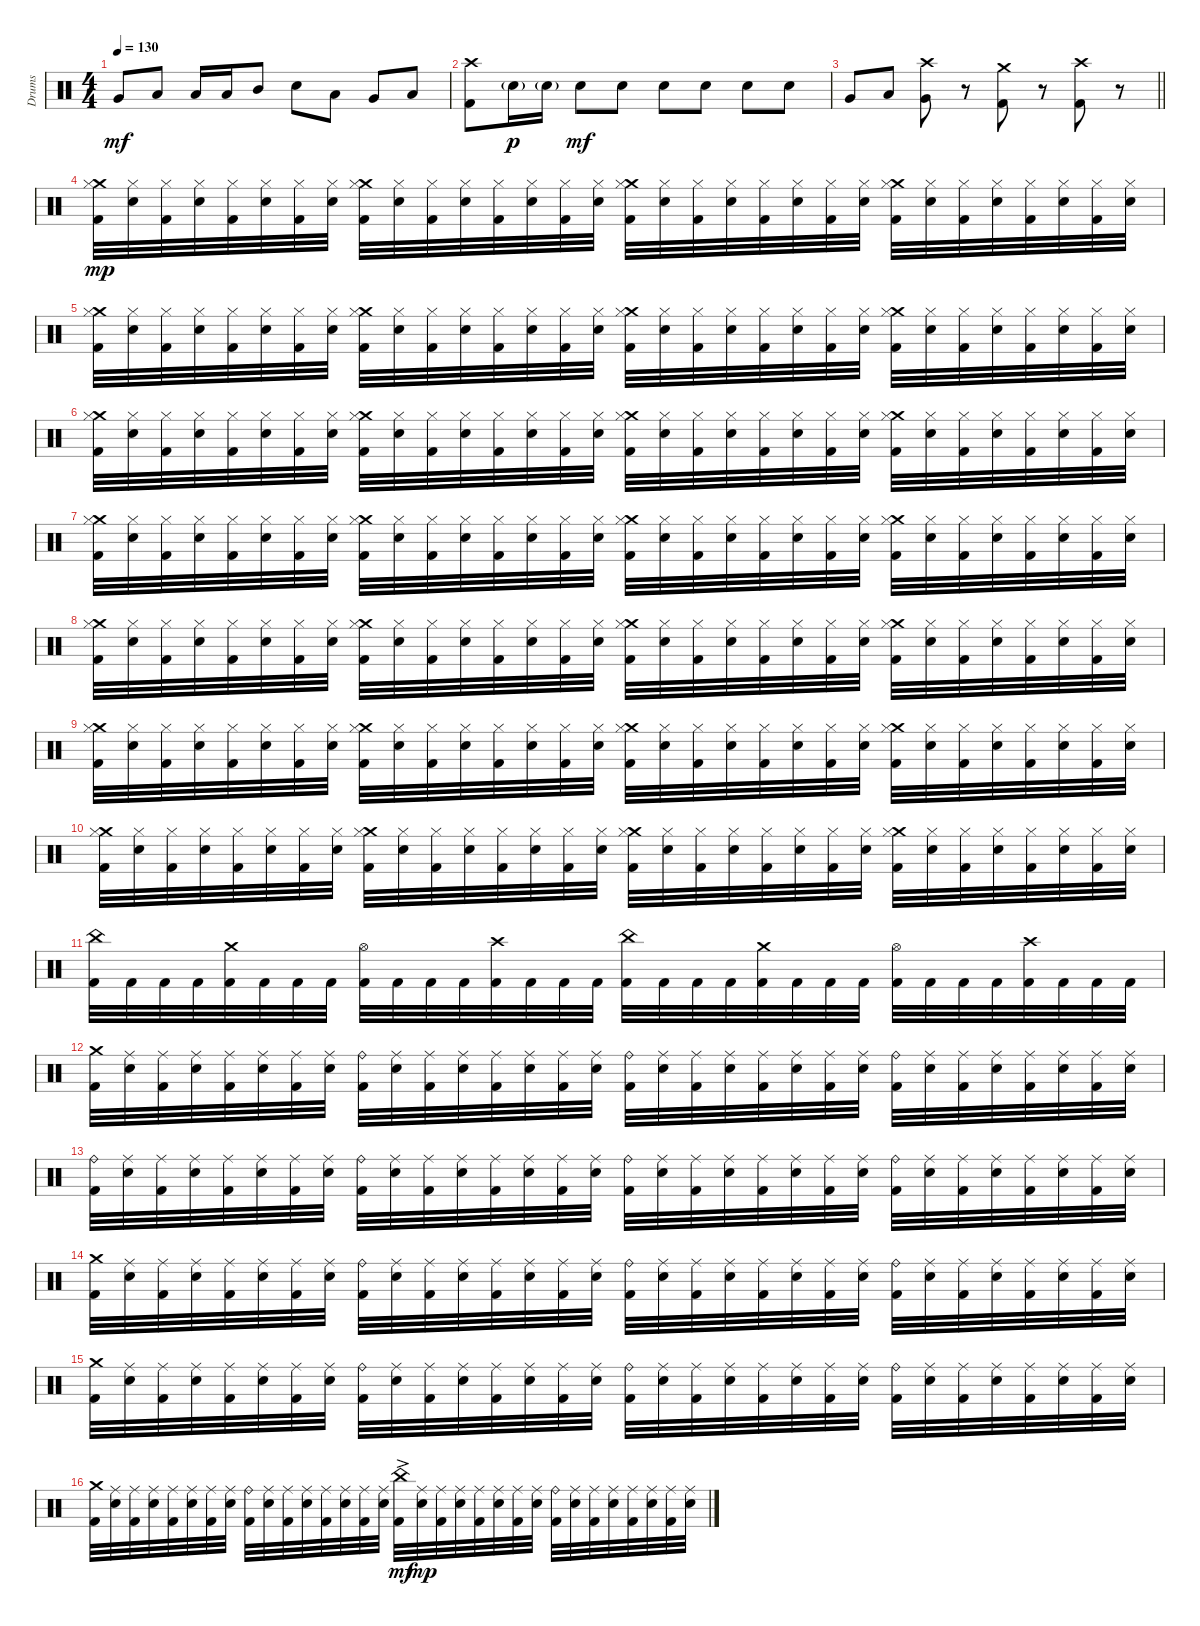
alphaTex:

\track ("Drums" "Drums") {instrument percussion}
\staff {score}
\articulation defaults
\ts (4 4)
\tempo 130
\clef neutral
\ks c "Very Low Tom (hit)".8{dy mf} "Low Floor Tom (hit)".8 "Low Tom (hit)".16 "Low Tom (hit)".16 "Mid Tom (hit)".8 "Electric Snare (hit)".8 "Low Tom (hit)".8 "Very Low Tom (hit)".8 "Low Floor Tom (hit)".8
|
("Kick (hit) 2" "Crash high (hit)").8 "Electric Snare (hit)"{g}.16{dy p} "Electric Snare (hit)"{g}.16 "Electric Snare (hit)".8{dy mf} "Electric Snare (hit)".8 "Electric Snare (hit)".8 "Electric Snare (hit)".8 "Electric Snare (hit)".8 "Electric Snare (hit)".8 |
\barLineRight lightlight "Very Low Tom (hit)".8 "Low Tom (hit)".8
("Very Low Tom (hit)" "Crash high (hit)").8 r.8 ("Kick (hit) 2" "Crash medium (hit)").8 r.8 ("Kick (hit) 2" "Crash high (hit)").8 r.8 |
("Kick (hit) 2" "Crash medium (hit)" "Hi-Hat (closed)").32{dy mp} ("Electric Snare (hit)" "Hi-Hat (closed)").32 ("Kick (hit) 2" "Hi-Hat (closed)").32 ("Electric Snare (hit)" "Hi-Hat (closed)").32 ("Kick (hit) 2" "Hi-Hat (closed)").32 ("Electric Snare (hit)" "Hi-Hat (closed)").32 ("Kick (hit) 2" "Hi-Hat (closed)").32 ("Electric Snare (hit)" "Hi-Hat (closed)").32 ("Kick (hit) 2" "Crash medium (hit)" "Hi-Hat (closed)").32 ("Electric Snare (hit)" "Hi-Hat (closed)").32 ("Kick (hit) 2" "Hi-Hat (closed)").32 ("Electric Snare (hit)" "Hi-Hat (closed)").32 ("Kick (hit) 2" "Hi-Hat (closed)").32 ("Electric Snare (hit)" "Hi-Hat (closed)").32 ("Kick (hit) 2" "Hi-Hat (closed)").32 ("Electric Snare (hit)" "Hi-Hat (closed)").32 ("Kick (hit) 2" "Crash medium (hit)" "Hi-Hat (closed)").32 ("Electric Snare (hit)" "Hi-Hat (closed)").32 ("Kick (hit) 2" "Hi-Hat (closed)").32 ("Electric Snare (hit)" "Hi-Hat (closed)").32 ("Kick (hit) 2" "Hi-Hat (closed)").32 ("Electric Snare (hit)" "Hi-Hat (closed)").32 ("Kick (hit) 2" "Hi-Hat (closed)").32 ("Electric Snare (hit)" "Hi-Hat (closed)").32 ("Kick (hit) 2" "Crash medium (hit)" "Hi-Hat (closed)").32 ("Electric Snare (hit)" "Hi-Hat (closed)").32 ("Kick (hit) 2" "Hi-Hat (closed)").32 ("Electric Snare (hit)" "Hi-Hat (closed)").32 ("Kick (hit) 2" "Hi-Hat (closed)").32 ("Electric Snare (hit)" "Hi-Hat (closed)").32 ("Kick (hit) 2" "Hi-Hat (closed)").32 ("Electric Snare (hit)" "Hi-Hat (closed)").32 |
("Kick (hit) 2" "Crash medium (hit)" "Hi-Hat (closed)").32 ("Electric Snare (hit)" "Hi-Hat (closed)").32 ("Kick (hit) 2" "Hi-Hat (closed)").32 ("Electric Snare (hit)" "Hi-Hat (closed)").32 ("Kick (hit) 2" "Hi-Hat (closed)").32 ("Electric Snare (hit)" "Hi-Hat (closed)").32 ("Kick (hit) 2" "Hi-Hat (closed)").32 ("Electric Snare (hit)" "Hi-Hat (closed)").32 ("Kick (hit) 2" "Crash medium (hit)" "Hi-Hat (closed)").32 ("Electric Snare (hit)" "Hi-Hat (closed)").32 ("Kick (hit) 2" "Hi-Hat (closed)").32 ("Electric Snare (hit)" "Hi-Hat (closed)").32 ("Kick (hit) 2" "Hi-Hat (closed)").32 ("Electric Snare (hit)" "Hi-Hat (closed)").32 ("Kick (hit) 2" "Hi-Hat (closed)").32 ("Electric Snare (hit)" "Hi-Hat (closed)").32 ("Kick (hit) 2" "Crash medium (hit)" "Hi-Hat (closed)").32 ("Electric Snare (hit)" "Hi-Hat (closed)").32 ("Kick (hit) 2" "Hi-Hat (closed)").32 ("Electric Snare (hit)" "Hi-Hat (closed)").32 ("Kick (hit) 2" "Hi-Hat (closed)").32 ("Electric Snare (hit)" "Hi-Hat (closed)").32 ("Kick (hit) 2" "Hi-Hat (closed)").32 ("Electric Snare (hit)" "Hi-Hat (closed)").32 ("Kick (hit) 2" "Crash medium (hit)" "Hi-Hat (closed)").32 ("Electric Snare (hit)" "Hi-Hat (closed)").32 ("Kick (hit) 2" "Hi-Hat (closed)").32 ("Electric Snare (hit)" "Hi-Hat (closed)").32 ("Kick (hit) 2" "Hi-Hat (closed)").32 ("Electric Snare (hit)" "Hi-Hat (closed)").32 ("Kick (hit) 2" "Hi-Hat (closed)").32 ("Electric Snare (hit)" "Hi-Hat (closed)").32 |
("Kick (hit) 2" "Crash medium (hit)" "Hi-Hat (closed)").32 ("Electric Snare (hit)" "Hi-Hat (closed)").32 ("Kick (hit) 2" "Hi-Hat (closed)").32 ("Electric Snare (hit)" "Hi-Hat (closed)").32 ("Kick (hit) 2" "Hi-Hat (closed)").32 ("Electric Snare (hit)" "Hi-Hat (closed)").32 ("Kick (hit) 2" "Hi-Hat (closed)").32 ("Electric Snare (hit)" "Hi-Hat (closed)").32 ("Kick (hit) 2" "Crash medium (hit)" "Hi-Hat (closed)").32 ("Electric Snare (hit)" "Hi-Hat (closed)").32 ("Kick (hit) 2" "Hi-Hat (closed)").32 ("Electric Snare (hit)" "Hi-Hat (closed)").32 ("Kick (hit) 2" "Hi-Hat (closed)").32 ("Electric Snare (hit)" "Hi-Hat (closed)").32 ("Kick (hit) 2" "Hi-Hat (closed)").32 ("Electric Snare (hit)" "Hi-Hat (closed)").32 ("Kick (hit) 2" "Crash medium (hit)" "Hi-Hat (closed)").32 ("Electric Snare (hit)" "Hi-Hat (closed)").32 ("Kick (hit) 2" "Hi-Hat (closed)").32 ("Electric Snare (hit)" "Hi-Hat (closed)").32 ("Kick (hit) 2" "Hi-Hat (closed)").32 ("Electric Snare (hit)" "Hi-Hat (closed)").32 ("Kick (hit) 2" "Hi-Hat (closed)").32 ("Electric Snare (hit)" "Hi-Hat (closed)").32 ("Kick (hit) 2" "Crash medium (hit)" "Hi-Hat (closed)").32 ("Electric Snare (hit)" "Hi-Hat (closed)").32 ("Kick (hit) 2" "Hi-Hat (closed)").32 ("Electric Snare (hit)" "Hi-Hat (closed)").32 ("Kick (hit) 2" "Hi-Hat (closed)").32 ("Electric Snare (hit)" "Hi-Hat (closed)").32 ("Kick (hit) 2" "Hi-Hat (closed)").32 ("Electric Snare (hit)" "Hi-Hat (closed)").32 |
("Kick (hit) 2" "Crash medium (hit)" "Hi-Hat (closed)").32 ("Electric Snare (hit)" "Hi-Hat (closed)").32 ("Kick (hit) 2" "Hi-Hat (closed)").32 ("Electric Snare (hit)" "Hi-Hat (closed)").32 ("Kick (hit) 2" "Hi-Hat (closed)").32 ("Electric Snare (hit)" "Hi-Hat (closed)").32 ("Kick (hit) 2" "Hi-Hat (closed)").32 ("Electric Snare (hit)" "Hi-Hat (closed)").32 ("Kick (hit) 2" "Crash medium (hit)" "Hi-Hat (closed)").32 ("Electric Snare (hit)" "Hi-Hat (closed)").32 ("Kick (hit) 2" "Hi-Hat (closed)").32 ("Electric Snare (hit)" "Hi-Hat (closed)").32 ("Kick (hit) 2" "Hi-Hat (closed)").32 ("Electric Snare (hit)" "Hi-Hat (closed)").32 ("Kick (hit) 2" "Hi-Hat (closed)").32 ("Electric Snare (hit)" "Hi-Hat (closed)").32 ("Kick (hit) 2" "Crash medium (hit)" "Hi-Hat (closed)").32 ("Electric Snare (hit)" "Hi-Hat (closed)").32 ("Kick (hit) 2" "Hi-Hat (closed)").32 ("Electric Snare (hit)" "Hi-Hat (closed)").32 ("Kick (hit) 2" "Hi-Hat (closed)").32 ("Electric Snare (hit)" "Hi-Hat (closed)").32 ("Kick (hit) 2" "Hi-Hat (closed)").32 ("Electric Snare (hit)" "Hi-Hat (closed)").32 ("Kick (hit) 2" "Crash medium (hit)" "Hi-Hat (closed)").32 ("Electric Snare (hit)" "Hi-Hat (closed)").32 ("Kick (hit) 2" "Hi-Hat (closed)").32 ("Electric Snare (hit)" "Hi-Hat (closed)").32 ("Kick (hit) 2" "Hi-Hat (closed)").32 ("Electric Snare (hit)" "Hi-Hat (closed)").32 ("Kick (hit) 2" "Hi-Hat (closed)").32 ("Electric Snare (hit)" "Hi-Hat (closed)").32 |
("Kick (hit) 2" "Crash medium (hit)" "Hi-Hat (closed)").32 ("Electric Snare (hit)" "Hi-Hat (closed)").32 ("Kick (hit) 2" "Hi-Hat (closed)").32 ("Electric Snare (hit)" "Hi-Hat (closed)").32 ("Kick (hit) 2" "Hi-Hat (closed)").32 ("Electric Snare (hit)" "Hi-Hat (closed)").32 ("Kick (hit) 2" "Hi-Hat (closed)").32 ("Electric Snare (hit)" "Hi-Hat (closed)").32 ("Kick (hit) 2" "Crash medium (hit)" "Hi-Hat (closed)").32 ("Electric Snare (hit)" "Hi-Hat (closed)").32 ("Kick (hit) 2" "Hi-Hat (closed)").32 ("Electric Snare (hit)" "Hi-Hat (closed)").32 ("Kick (hit) 2" "Hi-Hat (closed)").32 ("Electric Snare (hit)" "Hi-Hat (closed)").32 ("Kick (hit) 2" "Hi-Hat (closed)").32 ("Electric Snare (hit)" "Hi-Hat (closed)").32 ("Kick (hit) 2" "Crash medium (hit)" "Hi-Hat (closed)").32 ("Electric Snare (hit)" "Hi-Hat (closed)").32 ("Kick (hit) 2" "Hi-Hat (closed)").32 ("Electric Snare (hit)" "Hi-Hat (closed)").32 ("Kick (hit) 2" "Hi-Hat (closed)").32 ("Electric Snare (hit)" "Hi-Hat (closed)").32 ("Kick (hit) 2" "Hi-Hat (closed)").32 ("Electric Snare (hit)" "Hi-Hat (closed)").32 ("Kick (hit) 2" "Crash medium (hit)" "Hi-Hat (closed)").32 ("Electric Snare (hit)" "Hi-Hat (closed)").32 ("Kick (hit) 2" "Hi-Hat (closed)").32 ("Electric Snare (hit)" "Hi-Hat (closed)").32 ("Kick (hit) 2" "Hi-Hat (closed)").32 ("Electric Snare (hit)" "Hi-Hat (closed)").32 ("Kick (hit) 2" "Hi-Hat (closed)").32 ("Electric Snare (hit)" "Hi-Hat (closed)").32 |
("Kick (hit) 2" "Crash medium (hit)" "Hi-Hat (closed)").32 ("Electric Snare (hit)" "Hi-Hat (closed)").32 ("Kick (hit) 2" "Hi-Hat (closed)").32 ("Electric Snare (hit)" "Hi-Hat (closed)").32 ("Kick (hit) 2" "Hi-Hat (closed)").32 ("Electric Snare (hit)" "Hi-Hat (closed)").32 ("Kick (hit) 2" "Hi-Hat (closed)").32 ("Electric Snare (hit)" "Hi-Hat (closed)").32 ("Kick (hit) 2" "Crash medium (hit)" "Hi-Hat (closed)").32 ("Electric Snare (hit)" "Hi-Hat (closed)").32 ("Kick (hit) 2" "Hi-Hat (closed)").32 ("Electric Snare (hit)" "Hi-Hat (closed)").32 ("Kick (hit) 2" "Hi-Hat (closed)").32 ("Electric Snare (hit)" "Hi-Hat (closed)").32 ("Kick (hit) 2" "Hi-Hat (closed)").32 ("Electric Snare (hit)" "Hi-Hat (closed)").32 ("Kick (hit) 2" "Crash medium (hit)" "Hi-Hat (closed)").32 ("Electric Snare (hit)" "Hi-Hat (closed)").32 ("Kick (hit) 2" "Hi-Hat (closed)").32 ("Electric Snare (hit)" "Hi-Hat (closed)").32 ("Kick (hit) 2" "Hi-Hat (closed)").32 ("Electric Snare (hit)" "Hi-Hat (closed)").32 ("Kick (hit) 2" "Hi-Hat (closed)").32 ("Electric Snare (hit)" "Hi-Hat (closed)").32 ("Kick (hit) 2" "Crash medium (hit)" "Hi-Hat (closed)").32 ("Electric Snare (hit)" "Hi-Hat (closed)").32 ("Kick (hit) 2" "Hi-Hat (closed)").32 ("Electric Snare (hit)" "Hi-Hat (closed)").32 ("Kick (hit) 2" "Hi-Hat (closed)").32 ("Electric Snare (hit)" "Hi-Hat (closed)").32 ("Kick (hit) 2" "Hi-Hat (closed)").32 ("Electric Snare (hit)" "Hi-Hat (closed)").32 |
("Kick (hit) 2" "Crash medium (hit)" "Hi-Hat (closed)").32 ("Electric Snare (hit)" "Hi-Hat (closed)").32 ("Kick (hit) 2" "Hi-Hat (closed)").32 ("Electric Snare (hit)" "Hi-Hat (closed)").32 ("Kick (hit) 2" "Hi-Hat (closed)").32 ("Electric Snare (hit)" "Hi-Hat (closed)").32 ("Kick (hit) 2" "Hi-Hat (closed)").32 ("Electric Snare (hit)" "Hi-Hat (closed)").32 ("Kick (hit) 2" "Crash medium (hit)" "Hi-Hat (closed)").32 ("Electric Snare (hit)" "Hi-Hat (closed)").32 ("Kick (hit) 2" "Hi-Hat (closed)").32 ("Electric Snare (hit)" "Hi-Hat (closed)").32 ("Kick (hit) 2" "Hi-Hat (closed)").32 ("Electric Snare (hit)" "Hi-Hat (closed)").32 ("Kick (hit) 2" "Hi-Hat (closed)").32 ("Electric Snare (hit)" "Hi-Hat (closed)").32 ("Kick (hit) 2" "Crash medium (hit)" "Hi-Hat (closed)").32 ("Electric Snare (hit)" "Hi-Hat (closed)").32 ("Kick (hit) 2" "Hi-Hat (closed)").32 ("Electric Snare (hit)" "Hi-Hat (closed)").32 ("Kick (hit) 2" "Hi-Hat (closed)").32 ("Electric Snare (hit)" "Hi-Hat (closed)").32 ("Kick (hit) 2" "Hi-Hat (closed)").32 ("Electric Snare (hit)" "Hi-Hat (closed)").32 ("Kick (hit) 2" "Crash medium (hit)" "Hi-Hat (closed)").32 ("Electric Snare (hit)" "Hi-Hat (closed)").32 ("Kick (hit) 2" "Hi-Hat (closed)").32 ("Electric Snare (hit)" "Hi-Hat (closed)").32 ("Kick (hit) 2" "Hi-Hat (closed)").32 ("Electric Snare (hit)" "Hi-Hat (closed)").32 ("Kick (hit) 2" "Hi-Hat (closed)").32 ("Electric Snare (hit)" "Hi-Hat (closed)").32 |
("Kick (hit) 2" "China (hit)").32 "Kick (hit) 2".32 "Kick (hit) 2".32 "Kick (hit) 2".32 ("Kick (hit) 2" "Crash medium (hit)").32 "Kick (hit) 2".32 "Kick (hit) 2".32 "Kick (hit) 2".32 ("Kick (hit) 2" "Hi-Hat (open)").32 "Kick (hit) 2".32 "Kick (hit) 2".32 "Kick (hit) 2".32 ("Kick (hit) 2" "Crash high (hit)").32 "Kick (hit) 2".32 "Kick (hit) 2".32 "Kick (hit) 2".32 ("Kick (hit) 2" "China (hit)").32 "Kick (hit) 2".32 "Kick (hit) 2".32 "Kick (hit) 2".32 ("Kick (hit) 2" "Crash medium (hit)").32 "Kick (hit) 2".32 "Kick (hit) 2".32 "Kick (hit) 2".32 ("Kick (hit) 2" "Hi-Hat (open)").32 "Kick (hit) 2".32 "Kick (hit) 2".32 "Kick (hit) 2".32 ("Kick (hit) 2" "Crash high (hit)").32 "Kick (hit) 2".32 "Kick (hit) 2".32 "Kick (hit) 2".32 |
("Kick (hit) 2" "Crash medium (hit)").32 ("Electric Snare (hit)" "Ride (middle)").32 ("Kick (hit) 2" "Ride (middle)").32 ("Electric Snare (hit)" "Ride (middle)").32 ("Kick (hit) 2" "Ride (middle)").32 ("Electric Snare (hit)" "Ride (middle)").32 ("Kick (hit) 2" "Ride (middle)").32 ("Electric Snare (hit)" "Ride (middle)").32 ("Kick (hit) 2" "Ride (bell)").32 ("Electric Snare (hit)" "Ride (middle)").32 ("Kick (hit) 2" "Ride (middle)").32 ("Electric Snare (hit)" "Ride (middle)").32 ("Kick (hit) 2" "Ride (middle)").32 ("Electric Snare (hit)" "Ride (middle)").32 ("Kick (hit) 2" "Ride (middle)").32 ("Electric Snare (hit)" "Ride (middle)").32 ("Kick (hit) 2" "Ride (bell)").32 ("Electric Snare (hit)" "Ride (middle)").32 ("Kick (hit) 2" "Ride (middle)").32 ("Electric Snare (hit)" "Ride (middle)").32 ("Kick (hit) 2" "Ride (middle)").32 ("Electric Snare (hit)" "Ride (middle)").32 ("Kick (hit) 2" "Ride (middle)").32 ("Electric Snare (hit)" "Ride (middle)").32 ("Kick (hit) 2" "Ride (bell)").32 ("Electric Snare (hit)" "Ride (middle)").32 ("Kick (hit) 2" "Ride (middle)").32 ("Electric Snare (hit)" "Ride (middle)").32 ("Kick (hit) 2" "Ride (middle)").32 ("Electric Snare (hit)" "Ride (middle)").32 ("Kick (hit) 2" "Ride (middle)").32 ("Electric Snare (hit)" "Ride (middle)").32 |
("Kick (hit) 2" "Ride (bell)").32 ("Electric Snare (hit)" "Ride (middle)").32 ("Kick (hit) 2" "Ride (middle)").32 ("Electric Snare (hit)" "Ride (middle)").32 ("Kick (hit) 2" "Ride (middle)").32 ("Electric Snare (hit)" "Ride (middle)").32 ("Kick (hit) 2" "Ride (middle)").32 ("Electric Snare (hit)" "Ride (middle)").32 ("Kick (hit) 2" "Ride (bell)").32 ("Electric Snare (hit)" "Ride (middle)").32 ("Kick (hit) 2" "Ride (middle)").32 ("Electric Snare (hit)" "Ride (middle)").32 ("Kick (hit) 2" "Ride (middle)").32 ("Electric Snare (hit)" "Ride (middle)").32 ("Kick (hit) 2" "Ride (middle)").32 ("Electric Snare (hit)" "Ride (middle)").32 ("Kick (hit) 2" "Ride (bell)").32 ("Electric Snare (hit)" "Ride (middle)").32 ("Kick (hit) 2" "Ride (middle)").32 ("Electric Snare (hit)" "Ride (middle)").32 ("Kick (hit) 2" "Ride (middle)").32 ("Electric Snare (hit)" "Ride (middle)").32 ("Kick (hit) 2" "Ride (middle)").32 ("Electric Snare (hit)" "Ride (middle)").32 ("Kick (hit) 2" "Ride (bell)").32 ("Electric Snare (hit)" "Ride (middle)").32 ("Kick (hit) 2" "Ride (middle)").32 ("Electric Snare (hit)" "Ride (middle)").32 ("Kick (hit) 2" "Ride (middle)").32 ("Electric Snare (hit)" "Ride (middle)").32 ("Kick (hit) 2" "Ride (middle)").32 ("Electric Snare (hit)" "Ride (middle)").32 |
("Kick (hit) 2" "Crash medium (hit)").32 ("Electric Snare (hit)" "Ride (middle)").32 ("Kick (hit) 2" "Ride (middle)").32 ("Electric Snare (hit)" "Ride (middle)").32 ("Kick (hit) 2" "Ride (middle)").32 ("Electric Snare (hit)" "Ride (middle)").32 ("Kick (hit) 2" "Ride (middle)").32 ("Electric Snare (hit)" "Ride (middle)").32 ("Kick (hit) 2" "Ride (bell)").32 ("Electric Snare (hit)" "Ride (middle)").32 ("Kick (hit) 2" "Ride (middle)").32 ("Electric Snare (hit)" "Ride (middle)").32 ("Kick (hit) 2" "Ride (middle)").32 ("Electric Snare (hit)" "Ride (middle)").32 ("Kick (hit) 2" "Ride (middle)").32 ("Electric Snare (hit)" "Ride (middle)").32 ("Kick (hit) 2" "Ride (bell)").32 ("Electric Snare (hit)" "Ride (middle)").32 ("Kick (hit) 2" "Ride (middle)").32 ("Electric Snare (hit)" "Ride (middle)").32 ("Kick (hit) 2" "Ride (middle)").32 ("Electric Snare (hit)" "Ride (middle)").32 ("Kick (hit) 2" "Ride (middle)").32 ("Electric Snare (hit)" "Ride (middle)").32 ("Kick (hit) 2" "Ride (bell)").32 ("Electric Snare (hit)" "Ride (middle)").32 ("Kick (hit) 2" "Ride (middle)").32 ("Electric Snare (hit)" "Ride (middle)").32 ("Kick (hit) 2" "Ride (middle)").32 ("Electric Snare (hit)" "Ride (middle)").32 ("Kick (hit) 2" "Ride (middle)").32 ("Electric Snare (hit)" "Ride (middle)").32 |
("Kick (hit) 2" "Crash medium (hit)").32 ("Electric Snare (hit)" "Ride (middle)").32 ("Kick (hit) 2" "Ride (middle)").32 ("Electric Snare (hit)" "Ride (middle)").32 ("Kick (hit) 2" "Ride (middle)").32 ("Electric Snare (hit)" "Ride (middle)").32 ("Kick (hit) 2" "Ride (middle)").32 ("Electric Snare (hit)" "Ride (middle)").32 ("Kick (hit) 2" "Ride (bell)").32 ("Electric Snare (hit)" "Ride (middle)").32 ("Kick (hit) 2" "Ride (middle)").32 ("Electric Snare (hit)" "Ride (middle)").32 ("Kick (hit) 2" "Ride (middle)").32 ("Electric Snare (hit)" "Ride (middle)").32 ("Kick (hit) 2" "Ride (middle)").32 ("Electric Snare (hit)" "Ride (middle)").32 ("Kick (hit) 2" "Ride (bell)").32 ("Electric Snare (hit)" "Ride (middle)").32 ("Kick (hit) 2" "Ride (middle)").32 ("Electric Snare (hit)" "Ride (middle)").32 ("Kick (hit) 2" "Ride (middle)").32 ("Electric Snare (hit)" "Ride (middle)").32 ("Kick (hit) 2" "Ride (middle)").32 ("Electric Snare (hit)" "Ride (middle)").32 ("Kick (hit) 2" "Ride (bell)").32 ("Electric Snare (hit)" "Ride (middle)").32 ("Kick (hit) 2" "Ride (middle)").32 ("Electric Snare (hit)" "Ride (middle)").32 ("Kick (hit) 2" "Ride (middle)").32 ("Electric Snare (hit)" "Ride (middle)").32 ("Kick (hit) 2" "Ride (middle)").32 ("Electric Snare (hit)" "Ride (middle)").32 |
("Kick (hit) 2" "Crash medium (hit)").32 ("Electric Snare (hit)" "Ride (middle)").32 ("Kick (hit) 2" "Ride (middle)").32 ("Electric Snare (hit)" "Ride (middle)").32 ("Kick (hit) 2" "Ride (middle)").32 ("Electric Snare (hit)" "Ride (middle)").32 ("Kick (hit) 2" "Ride (middle)").32 ("Electric Snare (hit)" "Ride (middle)").32 ("Kick (hit) 2" "Ride (bell)").32 ("Electric Snare (hit)" "Ride (middle)").32 ("Kick (hit) 2" "Ride (middle)").32 ("Electric Snare (hit)" "Ride (middle)").32 ("Kick (hit) 2" "Ride (middle)").32 ("Electric Snare (hit)" "Ride (middle)").32 ("Kick (hit) 2" "Ride (middle)").32 ("Electric Snare (hit)" "Ride (middle)").32 ("Kick (hit) 2" "China (hit)"{ac}).32{dy mf} ("Electric Snare (hit)" "Ride (middle)").32{dy mp} ("Kick (hit) 2" "Ride (middle)").32 ("Electric Snare (hit)" "Ride (middle)").32 ("Kick (hit) 2" "Ride (middle)").32 ("Electric Snare (hit)" "Ride (middle)").32 ("Kick (hit) 2" "Ride (middle)").32 ("Electric Snare (hit)" "Ride (middle)").32 ("Kick (hit) 2" "Ride (bell)").32 ("Electric Snare (hit)" "Ride (middle)").32 ("Kick (hit) 2" "Ride (middle)").32 ("Electric Snare (hit)" "Ride (middle)").32 ("Kick (hit) 2" "Ride (middle)").32 ("Electric Snare (hit)" "Ride (middle)").32 ("Kick (hit) 2" "Ride (middle)").32 ("Electric Snare (hit)" "Ride (middle)").32
